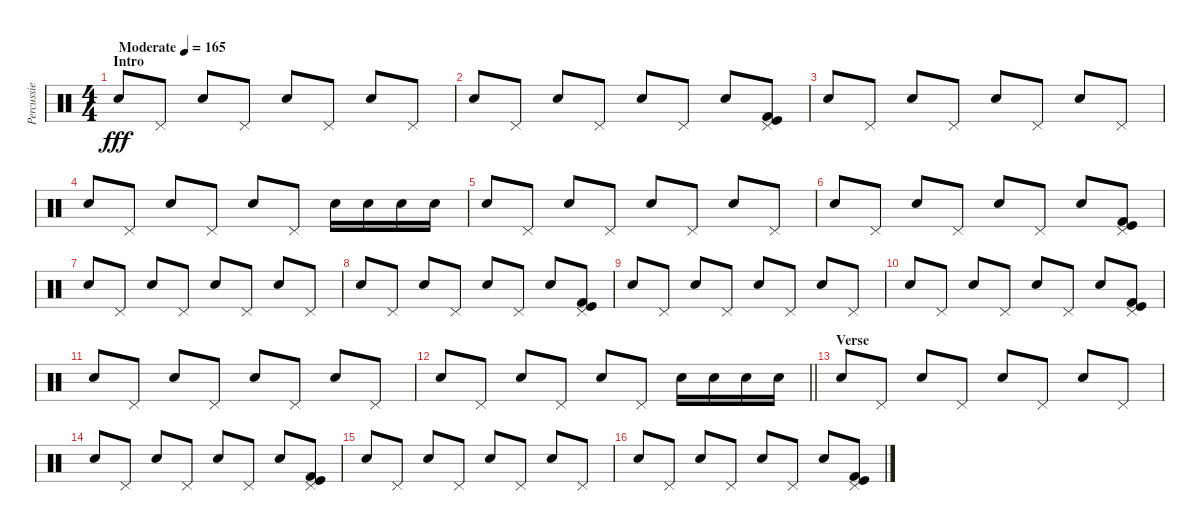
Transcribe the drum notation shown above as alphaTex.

\track ("Percussie" "Percussie") {instrument percussion}
\staff {score}
\articulation defaults
\ts (4 4)
\section ("" "Intro")
\tempo (165 "Moderate")
\clef neutral
\ks c "Snare (hit) 2".8{dy fff} "Pedal Hi-Hat (hit)".8 "Snare (hit) 2".8 "Pedal Hi-Hat (hit)".8 "Snare (hit) 2".8 "Pedal Hi-Hat (hit)".8 "Snare (hit) 2".8 "Pedal Hi-Hat (hit)".8
|
"Snare (hit) 2".8 "Pedal Hi-Hat (hit)".8 "Snare (hit) 2".8 "Pedal Hi-Hat (hit)".8 "Snare (hit) 2".8 "Pedal Hi-Hat (hit)".8 "Snare (hit) 2".8 ("Pedal Hi-Hat (hit)" "Kick (hit)" "Kick (hit) 2").8 |
"Snare (hit) 2".8 "Pedal Hi-Hat (hit)".8 "Snare (hit) 2".8 "Pedal Hi-Hat (hit)".8 "Snare (hit) 2".8 "Pedal Hi-Hat (hit)".8 "Snare (hit) 2".8 "Pedal Hi-Hat (hit)".8 |
"Snare (hit) 2".8 "Pedal Hi-Hat (hit)".8 "Snare (hit) 2".8 "Pedal Hi-Hat (hit)".8 "Snare (hit) 2".8 "Pedal Hi-Hat (hit)".8 "Snare (hit) 2".16 "Snare (hit) 2".16 "Snare (hit) 2".16 "Snare (hit) 2".16 |
"Snare (hit) 2".8 "Pedal Hi-Hat (hit)".8 "Snare (hit) 2".8 "Pedal Hi-Hat (hit)".8 "Snare (hit) 2".8 "Pedal Hi-Hat (hit)".8 "Snare (hit) 2".8 "Pedal Hi-Hat (hit)".8 |
"Snare (hit) 2".8 "Pedal Hi-Hat (hit)".8 "Snare (hit) 2".8 "Pedal Hi-Hat (hit)".8 "Snare (hit) 2".8 "Pedal Hi-Hat (hit)".8 "Snare (hit) 2".8 ("Pedal Hi-Hat (hit)" "Kick (hit)" "Kick (hit) 2").8 |
"Snare (hit) 2".8 "Pedal Hi-Hat (hit)".8 "Snare (hit) 2".8 "Pedal Hi-Hat (hit)".8 "Snare (hit) 2".8 "Pedal Hi-Hat (hit)".8 "Snare (hit) 2".8 "Pedal Hi-Hat (hit)".8 |
"Snare (hit) 2".8 "Pedal Hi-Hat (hit)".8 "Snare (hit) 2".8 "Pedal Hi-Hat (hit)".8 "Snare (hit) 2".8 "Pedal Hi-Hat (hit)".8 "Snare (hit) 2".8 ("Pedal Hi-Hat (hit)" "Kick (hit)" "Kick (hit) 2").8 |
"Snare (hit) 2".8 "Pedal Hi-Hat (hit)".8 "Snare (hit) 2".8 "Pedal Hi-Hat (hit)".8 "Snare (hit) 2".8 "Pedal Hi-Hat (hit)".8 "Snare (hit) 2".8 "Pedal Hi-Hat (hit)".8 |
"Snare (hit) 2".8 "Pedal Hi-Hat (hit)".8 "Snare (hit) 2".8 "Pedal Hi-Hat (hit)".8 "Snare (hit) 2".8 "Pedal Hi-Hat (hit)".8 "Snare (hit) 2".8 ("Pedal Hi-Hat (hit)" "Kick (hit)" "Kick (hit) 2").8 |
"Snare (hit) 2".8 "Pedal Hi-Hat (hit)".8 "Snare (hit) 2".8 "Pedal Hi-Hat (hit)".8 "Snare (hit) 2".8 "Pedal Hi-Hat (hit)".8 "Snare (hit) 2".8 "Pedal Hi-Hat (hit)".8 |
\barLineRight lightlight "Snare (hit) 2".8 "Pedal Hi-Hat (hit)".8 "Snare (hit) 2".8 "Pedal Hi-Hat (hit)".8 "Snare (hit) 2".8 "Pedal Hi-Hat (hit)".8 "Snare (hit) 2".16 "Snare (hit) 2".16 "Snare (hit) 2".16 "Snare (hit) 2".16
|
\section ("" "Verse")
"Snare (hit) 2".8 "Pedal Hi-Hat (hit)".8 "Snare (hit) 2".8 "Pedal Hi-Hat (hit)".8 "Snare (hit) 2".8 "Pedal Hi-Hat (hit)".8 "Snare (hit) 2".8 "Pedal Hi-Hat (hit)".8 |
"Snare (hit) 2".8 "Pedal Hi-Hat (hit)".8 "Snare (hit) 2".8 "Pedal Hi-Hat (hit)".8 "Snare (hit) 2".8 "Pedal Hi-Hat (hit)".8 "Snare (hit) 2".8 ("Pedal Hi-Hat (hit)" "Kick (hit)" "Kick (hit) 2").8 |
"Snare (hit) 2".8 "Pedal Hi-Hat (hit)".8 "Snare (hit) 2".8 "Pedal Hi-Hat (hit)".8 "Snare (hit) 2".8 "Pedal Hi-Hat (hit)".8 "Snare (hit) 2".8 "Pedal Hi-Hat (hit)".8 |
"Snare (hit) 2".8 "Pedal Hi-Hat (hit)".8 "Snare (hit) 2".8 "Pedal Hi-Hat (hit)".8 "Snare (hit) 2".8 "Pedal Hi-Hat (hit)".8 "Snare (hit) 2".8 ("Pedal Hi-Hat (hit)" "Kick (hit)" "Kick (hit) 2").8
